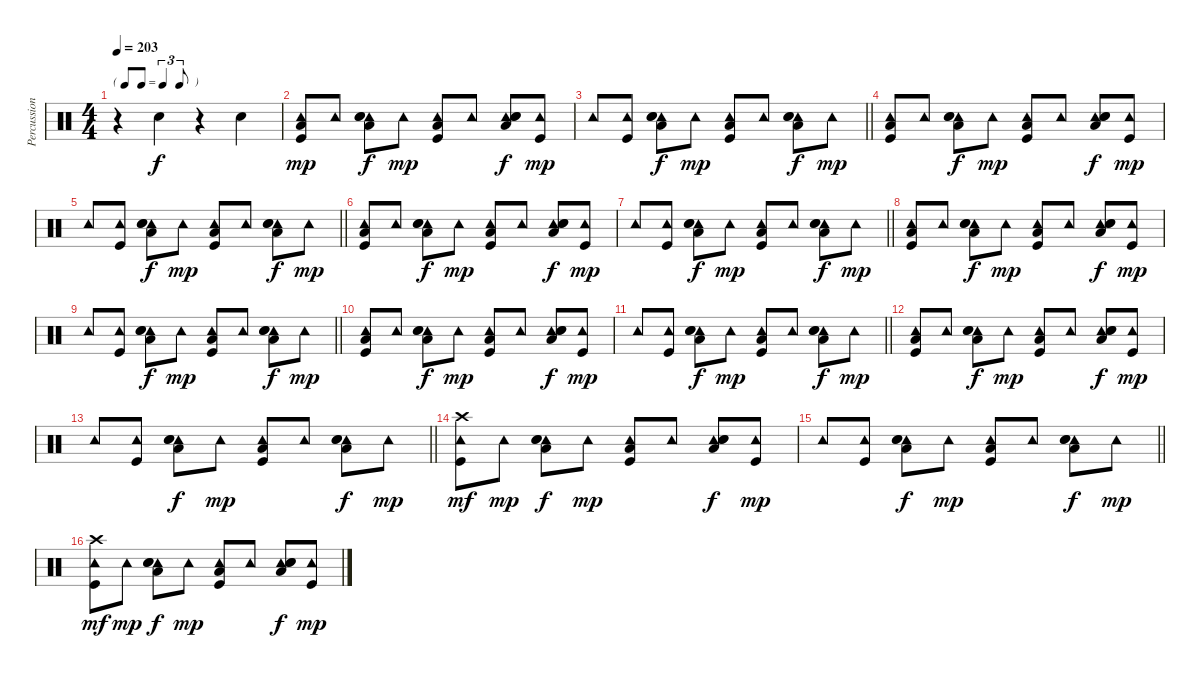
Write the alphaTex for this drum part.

\track ("Percussion" "Percussion") {instrument percussion}
\staff {score}
\articulation defaults
\ts (4 4)
\tf triplet8th
\tempo 203
\clef neutral
\ks c
r.4{dy f} "Hand Clap (hit)".4 r.4 "Hand Clap (hit)".4 |
("Tambourine (hit)" "Low Tom (hit)" "Kick (hit)").8{dy mp} "Tambourine (hit)".8 ("Tambourine (hit)" "Hand Clap (hit)" "Snare (hit) 2" "Low Tom (hit)").8{dy f} "Tambourine (hit)".8{dy mp} ("Tambourine (hit)" "Low Tom (hit)" "Kick (hit)").8 "Tambourine (hit)".8 ("Tambourine (hit)" "Hand Clap (hit)" "Snare (hit) 2" "Low Tom (hit)").8{dy f} ("Tambourine (hit)" "Kick (hit)").8{dy mp} |
\barLineRight lightlight "Tambourine (hit)".8
("Tambourine (hit)" "Kick (hit)").8 ("Tambourine (hit)" "Hand Clap (hit)" "Snare (hit) 2" "Low Tom (hit)").8{dy f} "Tambourine (hit)".8{dy mp} ("Tambourine (hit)" "Low Tom (hit)" "Kick (hit)").8 "Tambourine (hit)".8 ("Tambourine (hit)" "Hand Clap (hit)" "Snare (hit) 2" "Low Tom (hit)").8{dy f} "Tambourine (hit)".8{dy mp} |
("Tambourine (hit)" "Low Tom (hit)" "Kick (hit)").8 "Tambourine (hit)".8 ("Tambourine (hit)" "Hand Clap (hit)" "Snare (hit) 2" "Low Tom (hit)").8{dy f} "Tambourine (hit)".8{dy mp} ("Tambourine (hit)" "Low Tom (hit)" "Kick (hit)").8 "Tambourine (hit)".8 ("Tambourine (hit)" "Hand Clap (hit)" "Snare (hit) 2" "Low Tom (hit)").8{dy f} ("Tambourine (hit)" "Kick (hit)").8{dy mp} |
\barLineRight lightlight "Tambourine (hit)".8
("Tambourine (hit)" "Kick (hit)").8 ("Tambourine (hit)" "Hand Clap (hit)" "Snare (hit) 2" "Low Tom (hit)").8{dy f} "Tambourine (hit)".8{dy mp} ("Tambourine (hit)" "Low Tom (hit)" "Kick (hit)").8 "Tambourine (hit)".8 ("Tambourine (hit)" "Hand Clap (hit)" "Snare (hit) 2" "Low Tom (hit)").8{dy f} "Tambourine (hit)".8{dy mp} |
("Tambourine (hit)" "Low Tom (hit)" "Kick (hit)").8 "Tambourine (hit)".8 ("Tambourine (hit)" "Hand Clap (hit)" "Snare (hit) 2" "Low Tom (hit)").8{dy f} "Tambourine (hit)".8{dy mp} ("Tambourine (hit)" "Low Tom (hit)" "Kick (hit)").8 "Tambourine (hit)".8 ("Tambourine (hit)" "Hand Clap (hit)" "Snare (hit) 2" "Low Tom (hit)").8{dy f} ("Tambourine (hit)" "Kick (hit)").8{dy mp} |
\barLineRight lightlight "Tambourine (hit)".8
("Tambourine (hit)" "Kick (hit)").8 ("Tambourine (hit)" "Hand Clap (hit)" "Snare (hit) 2" "Low Tom (hit)").8{dy f} "Tambourine (hit)".8{dy mp} ("Tambourine (hit)" "Low Tom (hit)" "Kick (hit)").8 "Tambourine (hit)".8 ("Tambourine (hit)" "Hand Clap (hit)" "Snare (hit) 2" "Low Tom (hit)").8{dy f} "Tambourine (hit)".8{dy mp} |
("Tambourine (hit)" "Low Tom (hit)" "Kick (hit)").8 "Tambourine (hit)".8 ("Tambourine (hit)" "Hand Clap (hit)" "Snare (hit) 2" "Low Tom (hit)").8{dy f} "Tambourine (hit)".8{dy mp} ("Tambourine (hit)" "Low Tom (hit)" "Kick (hit)").8 "Tambourine (hit)".8 ("Tambourine (hit)" "Hand Clap (hit)" "Snare (hit) 2" "Low Tom (hit)").8{dy f} ("Tambourine (hit)" "Kick (hit)").8{dy mp} |
\barLineRight lightlight "Tambourine (hit)".8
("Tambourine (hit)" "Kick (hit)").8 ("Tambourine (hit)" "Hand Clap (hit)" "Snare (hit) 2" "Low Tom (hit)").8{dy f} "Tambourine (hit)".8{dy mp} ("Tambourine (hit)" "Low Tom (hit)" "Kick (hit)").8 "Tambourine (hit)".8 ("Tambourine (hit)" "Hand Clap (hit)" "Snare (hit) 2" "Low Tom (hit)").8{dy f} "Tambourine (hit)".8{dy mp} |
("Tambourine (hit)" "Low Tom (hit)" "Kick (hit)").8 "Tambourine (hit)".8 ("Tambourine (hit)" "Hand Clap (hit)" "Snare (hit) 2" "Low Tom (hit)").8{dy f} "Tambourine (hit)".8{dy mp} ("Tambourine (hit)" "Low Tom (hit)" "Kick (hit)").8 "Tambourine (hit)".8 ("Tambourine (hit)" "Hand Clap (hit)" "Snare (hit) 2" "Low Tom (hit)").8{dy f} ("Tambourine (hit)" "Kick (hit)").8{dy mp} |
\barLineRight lightlight "Tambourine (hit)".8
("Tambourine (hit)" "Kick (hit)").8 ("Tambourine (hit)" "Hand Clap (hit)" "Snare (hit) 2" "Low Tom (hit)").8{dy f} "Tambourine (hit)".8{dy mp} ("Tambourine (hit)" "Low Tom (hit)" "Kick (hit)").8 "Tambourine (hit)".8 ("Tambourine (hit)" "Hand Clap (hit)" "Snare (hit) 2" "Low Tom (hit)").8{dy f} "Tambourine (hit)".8{dy mp} |
("Tambourine (hit)" "Low Tom (hit)" "Kick (hit)").8 "Tambourine (hit)".8 ("Tambourine (hit)" "Hand Clap (hit)" "Snare (hit) 2" "Low Tom (hit)").8{dy f} "Tambourine (hit)".8{dy mp} ("Tambourine (hit)" "Low Tom (hit)" "Kick (hit)").8 "Tambourine (hit)".8 ("Tambourine (hit)" "Hand Clap (hit)" "Snare (hit) 2" "Low Tom (hit)").8{dy f} ("Tambourine (hit)" "Kick (hit)").8{dy mp} |
\barLineRight lightlight "Tambourine (hit)".8
("Tambourine (hit)" "Kick (hit)").8 ("Tambourine (hit)" "Hand Clap (hit)" "Snare (hit) 2" "Low Tom (hit)").8{dy f} "Tambourine (hit)".8{dy mp} ("Tambourine (hit)" "Low Tom (hit)" "Kick (hit)").8 "Tambourine (hit)".8 ("Tambourine (hit)" "Hand Clap (hit)" "Snare (hit) 2" "Low Tom (hit)").8{dy f} "Tambourine (hit)".8{dy mp} |
("Tambourine (hit)" "Crash high (hit)" "Kick (hit)").8{dy mf} "Tambourine (hit)".8{dy mp} ("Tambourine (hit)" "Hand Clap (hit)" "Snare (hit) 2" "Low Tom (hit)").8{dy f} "Tambourine (hit)".8{dy mp} ("Tambourine (hit)" "Low Tom (hit)" "Kick (hit)").8 "Tambourine (hit)".8 ("Tambourine (hit)" "Hand Clap (hit)" "Snare (hit) 2" "Low Tom (hit)").8{dy f} ("Tambourine (hit)" "Kick (hit)").8{dy mp} |
\barLineRight lightlight "Tambourine (hit)".8
("Tambourine (hit)" "Kick (hit)").8 ("Tambourine (hit)" "Hand Clap (hit)" "Snare (hit) 2" "Low Tom (hit)").8{dy f} "Tambourine (hit)".8{dy mp} ("Tambourine (hit)" "Low Tom (hit)" "Kick (hit)").8 "Tambourine (hit)".8 ("Tambourine (hit)" "Hand Clap (hit)" "Snare (hit) 2" "Low Tom (hit)").8{dy f} "Tambourine (hit)".8{dy mp} |
("Tambourine (hit)" "Crash high (hit)" "Kick (hit)").8{dy mf} "Tambourine (hit)".8{dy mp} ("Tambourine (hit)" "Hand Clap (hit)" "Snare (hit) 2" "Low Tom (hit)").8{dy f} "Tambourine (hit)".8{dy mp} ("Tambourine (hit)" "Low Tom (hit)" "Kick (hit)").8 "Tambourine (hit)".8 ("Tambourine (hit)" "Hand Clap (hit)" "Snare (hit) 2" "Low Tom (hit)").8{dy f} ("Tambourine (hit)" "Kick (hit)").8{dy mp}
